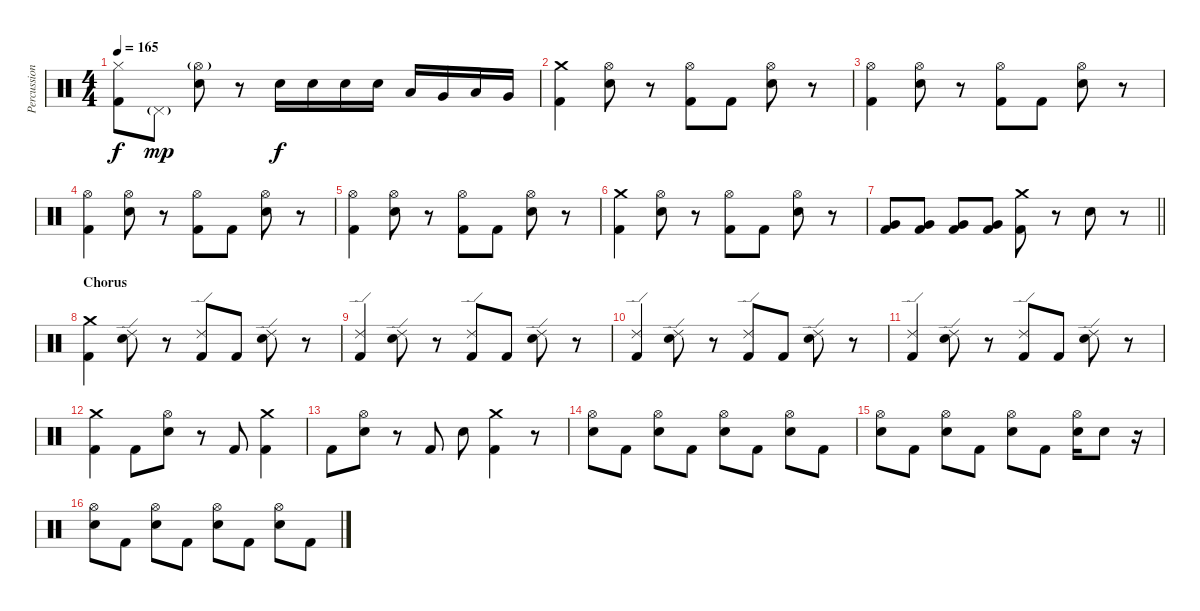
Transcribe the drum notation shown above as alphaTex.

\track ("Percussion" "Percussion") {instrument percussion}
\staff {score}
\articulation defaults
\ts (4 4)
\tempo 165
\clef neutral
\ks c
("Hi-Hat (closed)" "Kick (hit) 2").8{dy f} "Pedal Hi-Hat (hit)"{g}.8{dy mp} ("Hi-Hat (open)"{g} "Electric Snare (hit)").8 r.8 "Electric Snare (hit)".16{dy f} "Electric Snare (hit)".16 "Electric Snare (hit)".16 "Electric Snare (hit)".16 "Low Tom (hit)".16 "Very Low Tom (hit)".16 "Low Tom (hit)".16 "Very Low Tom (hit)".16 |
("Crash medium (hit)" "Kick (hit) 2").4 ("Hi-Hat (open)" "Electric Snare (hit)").8 r.8 ("Hi-Hat (open)" "Kick (hit) 2").8 "Kick (hit) 2".8 ("Hi-Hat (open)" "Electric Snare (hit)").8 r.8 |
("Hi-Hat (open)" "Kick (hit) 2").4 ("Hi-Hat (open)" "Electric Snare (hit)").8 r.8 ("Hi-Hat (open)" "Kick (hit) 2").8 "Kick (hit) 2".8 ("Hi-Hat (open)" "Electric Snare (hit)").8 r.8 |
("Hi-Hat (open)" "Kick (hit) 2").4 ("Hi-Hat (open)" "Electric Snare (hit)").8 r.8 ("Hi-Hat (open)" "Kick (hit) 2").8 "Kick (hit) 2".8 ("Hi-Hat (open)" "Electric Snare (hit)").8 r.8 |
("Hi-Hat (open)" "Kick (hit) 2").4 ("Hi-Hat (open)" "Electric Snare (hit)").8 r.8 ("Hi-Hat (open)" "Kick (hit) 2").8 "Kick (hit) 2".8 ("Hi-Hat (open)" "Electric Snare (hit)").8 r.8 |
("Crash medium (hit)" "Kick (hit) 2").4 ("Hi-Hat (open)" "Electric Snare (hit)").8 r.8 ("Hi-Hat (open)" "Kick (hit) 2").8 "Kick (hit) 2".8 ("Hi-Hat (open)" "Electric Snare (hit)").8 r.8 |
\barLineRight lightlight
("Very Low Tom (hit)" "Kick (hit) 2").8 ("Very Low Tom (hit)" "Kick (hit) 2").8 ("Very Low Tom (hit)" "Kick (hit) 2").8 ("Very Low Tom (hit)" "Kick (hit) 2").8 ("Kick (hit) 2" "Crash medium (hit)").8 r.8 "Electric Snare (hit)".8 r.8 |
\section ("" "Chorus")
("Crash medium (hit)" "Kick (hit) 2").4 ("Ride (edge) 2" "Electric Snare (hit)").8 r.8 ("Ride (edge) 2" "Kick (hit) 2").8 "Kick (hit) 2".8 ("Ride (edge) 2" "Electric Snare (hit)").8 r.8 |
("Ride (edge) 2" "Kick (hit) 2").4 ("Ride (edge) 2" "Electric Snare (hit)").8 r.8 ("Ride (edge) 2" "Kick (hit) 2").8 "Kick (hit) 2".8 ("Ride (edge) 2" "Electric Snare (hit)").8 r.8 |
("Ride (edge) 2" "Kick (hit) 2").4 ("Ride (edge) 2" "Electric Snare (hit)").8 r.8 ("Ride (edge) 2" "Kick (hit) 2").8 "Kick (hit) 2".8 ("Ride (edge) 2" "Electric Snare (hit)").8 r.8 |
("Ride (edge) 2" "Kick (hit) 2").4 ("Ride (edge) 2" "Electric Snare (hit)").8 r.8 ("Ride (edge) 2" "Kick (hit) 2").8 "Kick (hit) 2".8 ("Ride (edge) 2" "Electric Snare (hit)").8 r.8 |
("Crash medium (hit)" "Kick (hit) 2").4 "Kick (hit) 2".8 ("Hi-Hat (open)" "Electric Snare (hit)").8 r.8 "Kick (hit) 2".8 ("Crash medium (hit)" "Kick (hit) 2").4 |
"Kick (hit) 2".8 ("Hi-Hat (open)" "Electric Snare (hit)").8 r.8 "Kick (hit) 2".8 "Electric Snare (hit)".8 ("Crash medium (hit)" "Kick (hit) 2").4 r.8 |
("Hi-Hat (open)" "Electric Snare (hit)").8 "Kick (hit) 2".8 ("Hi-Hat (open)" "Electric Snare (hit)").8 "Kick (hit) 2".8 ("Hi-Hat (open)" "Electric Snare (hit)").8 "Kick (hit) 2".8 ("Hi-Hat (open)" "Electric Snare (hit)").8 "Kick (hit) 2".8 |
("Hi-Hat (open)" "Electric Snare (hit)").8 "Kick (hit) 2".8 ("Hi-Hat (open)" "Electric Snare (hit)").8 "Kick (hit) 2".8 ("Hi-Hat (open)" "Electric Snare (hit)").8 "Kick (hit) 2".8 ("Hi-Hat (open)" "Electric Snare (hit)").16 "Electric Snare (hit)".8 r.16 |
("Hi-Hat (open)" "Electric Snare (hit)").8 "Kick (hit) 2".8 ("Hi-Hat (open)" "Electric Snare (hit)").8 "Kick (hit) 2".8 ("Hi-Hat (open)" "Electric Snare (hit)").8 "Kick (hit) 2".8 ("Hi-Hat (open)" "Electric Snare (hit)").8 "Kick (hit) 2".8
